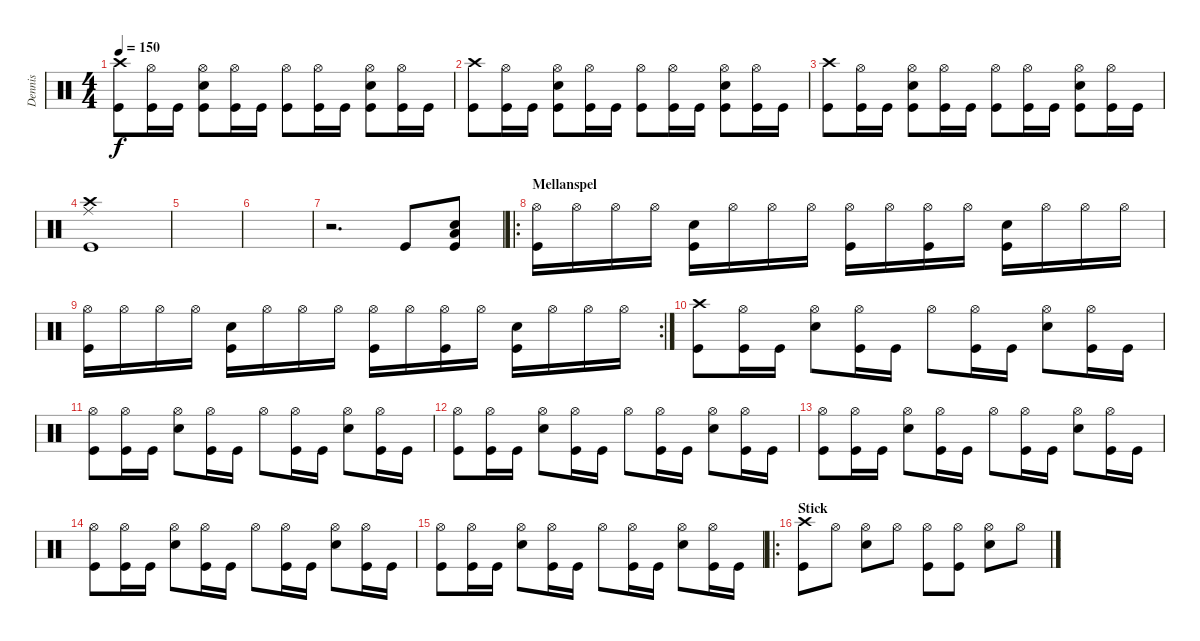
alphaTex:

\track ("Dennis" "Dennis") {instrument percussion}
\staff {score}
\articulation defaults
\ts (4 4)
\tempo 150
\clef neutral
\ks c
("Crash high (hit)" "Kick (hit)").8{dy f} ("Hi-Hat (open)" "Kick (hit)").16 "Kick (hit)".16 ("Hi-Hat (open)" "Kick (hit)" "Snare (hit) 2").8 ("Hi-Hat (open)" "Kick (hit)").16 "Kick (hit)".16 ("Hi-Hat (open)" "Kick (hit)").8 ("Hi-Hat (open)" "Kick (hit)").16 "Kick (hit)".16 ("Hi-Hat (open)" "Kick (hit)" "Snare (hit) 2").8 ("Hi-Hat (open)" "Kick (hit)").16 "Kick (hit)".16 |
("Crash high (hit)" "Kick (hit)").8 ("Hi-Hat (open)" "Kick (hit)").16 "Kick (hit)".16 ("Hi-Hat (open)" "Kick (hit)" "Snare (hit) 2").8 ("Hi-Hat (open)" "Kick (hit)").16 "Kick (hit)".16 ("Hi-Hat (open)" "Kick (hit)").8 ("Hi-Hat (open)" "Kick (hit)").16 "Kick (hit)".16 ("Hi-Hat (open)" "Kick (hit)" "Snare (hit) 2").8 ("Hi-Hat (open)" "Kick (hit)").16 "Kick (hit)".16 |
("Crash high (hit)" "Kick (hit)").8 ("Hi-Hat (open)" "Kick (hit)").16 "Kick (hit)".16 ("Hi-Hat (open)" "Kick (hit)" "Snare (hit) 2").8 ("Hi-Hat (open)" "Kick (hit)").16 "Kick (hit)".16 ("Hi-Hat (open)" "Kick (hit)").8 ("Hi-Hat (open)" "Kick (hit)").16 "Kick (hit)".16 ("Hi-Hat (open)" "Kick (hit)" "Snare (hit) 2").8 ("Hi-Hat (open)" "Kick (hit)").16 "Kick (hit)".16 |
("Crash high (hit)" "Kick (hit)" "Ride (middle)").1 |
|
|
r.2{d} "Kick (hit)".8 ("Low Floor Tom (hit)" "Kick (hit)" "Snare (hit) 2").8 |
\ro
\section ("" "Mellanspel")
("Hi-Hat (open)" "Kick (hit)").16 "Hi-Hat (open)".16 "Hi-Hat (open)".16 "Hi-Hat (open)".16 ("Snare (hit) 2" "Kick (hit)").16 "Hi-Hat (open)".16 "Hi-Hat (open)".16 "Hi-Hat (open)".16 ("Hi-Hat (open)" "Kick (hit)").16 "Hi-Hat (open)".16 ("Hi-Hat (open)" "Kick (hit)").16 "Hi-Hat (open)".16 ("Snare (hit) 2" "Kick (hit)").16 "Hi-Hat (open)".16 "Hi-Hat (open)".16 "Hi-Hat (open)".16 |
\rc 2
("Hi-Hat (open)" "Kick (hit)").16 "Hi-Hat (open)".16 "Hi-Hat (open)".16 "Hi-Hat (open)".16 ("Snare (hit) 2" "Kick (hit)").16 "Hi-Hat (open)".16 "Hi-Hat (open)".16 "Hi-Hat (open)".16 ("Hi-Hat (open)" "Kick (hit)").16 "Hi-Hat (open)".16 ("Hi-Hat (open)" "Kick (hit)").16 "Hi-Hat (open)".16 ("Snare (hit) 2" "Kick (hit)").16 "Hi-Hat (open)".16 "Hi-Hat (open)".16 "Hi-Hat (open)".16 |
("Crash high (hit)" "Kick (hit)").8 ("Hi-Hat (open)" "Kick (hit)").16 "Kick (hit)".16 ("Hi-Hat (open)" "Snare (hit) 2").8 ("Hi-Hat (open)" "Kick (hit)").16 "Kick (hit)".16 "Hi-Hat (open)".8 ("Hi-Hat (open)" "Kick (hit)").16 "Kick (hit)".16 ("Hi-Hat (open)" "Snare (hit) 2").8 ("Hi-Hat (open)" "Kick (hit)").16 "Kick (hit)".16 |
("Hi-Hat (open)" "Kick (hit)").8 ("Hi-Hat (open)" "Kick (hit)").16 "Kick (hit)".16 ("Hi-Hat (open)" "Snare (hit) 2").8 ("Hi-Hat (open)" "Kick (hit)").16 "Kick (hit)".16 "Hi-Hat (open)".8 ("Hi-Hat (open)" "Kick (hit)").16 "Kick (hit)".16 ("Hi-Hat (open)" "Snare (hit) 2").8 ("Hi-Hat (open)" "Kick (hit)").16 "Kick (hit)".16 |
("Hi-Hat (open)" "Kick (hit)").8 ("Hi-Hat (open)" "Kick (hit)").16 "Kick (hit)".16 ("Hi-Hat (open)" "Snare (hit) 2").8 ("Hi-Hat (open)" "Kick (hit)").16 "Kick (hit)".16 "Hi-Hat (open)".8 ("Hi-Hat (open)" "Kick (hit)").16 "Kick (hit)".16 ("Hi-Hat (open)" "Snare (hit) 2").8 ("Hi-Hat (open)" "Kick (hit)").16 "Kick (hit)".16 |
("Hi-Hat (open)" "Kick (hit)").8 ("Hi-Hat (open)" "Kick (hit)").16 "Kick (hit)".16 ("Hi-Hat (open)" "Snare (hit) 2").8 ("Hi-Hat (open)" "Kick (hit)").16 "Kick (hit)".16 "Hi-Hat (open)".8 ("Hi-Hat (open)" "Kick (hit)").16 "Kick (hit)".16 ("Hi-Hat (open)" "Snare (hit) 2").8 ("Hi-Hat (open)" "Kick (hit)").16 "Kick (hit)".16 |
("Hi-Hat (open)" "Kick (hit)").8 ("Hi-Hat (open)" "Kick (hit)").16 "Kick (hit)".16 ("Hi-Hat (open)" "Snare (hit) 2").8 ("Hi-Hat (open)" "Kick (hit)").16 "Kick (hit)".16 "Hi-Hat (open)".8 ("Hi-Hat (open)" "Kick (hit)").16 "Kick (hit)".16 ("Hi-Hat (open)" "Snare (hit) 2").8 ("Hi-Hat (open)" "Kick (hit)").16 "Kick (hit)".16 |
("Hi-Hat (open)" "Kick (hit)").8 ("Hi-Hat (open)" "Kick (hit)").16 "Kick (hit)".16 ("Hi-Hat (open)" "Snare (hit) 2").8 ("Hi-Hat (open)" "Kick (hit)").16 "Kick (hit)".16 "Hi-Hat (open)".8 ("Hi-Hat (open)" "Kick (hit)").16 "Kick (hit)".16 ("Hi-Hat (open)" "Snare (hit) 2").8 ("Hi-Hat (open)" "Kick (hit)").16 "Kick (hit)".16 |
\ro
\section ("" "Stick")
("Crash high (hit)" "Kick (hit)").8 "Hi-Hat (open)".8 ("Hi-Hat (open)" "Snare (hit) 2").8 "Hi-Hat (open)".8 ("Hi-Hat (open)" "Kick (hit)").8 ("Hi-Hat (open)" "Kick (hit)").8 ("Hi-Hat (open)" "Snare (hit) 2").8 "Hi-Hat (open)".8
